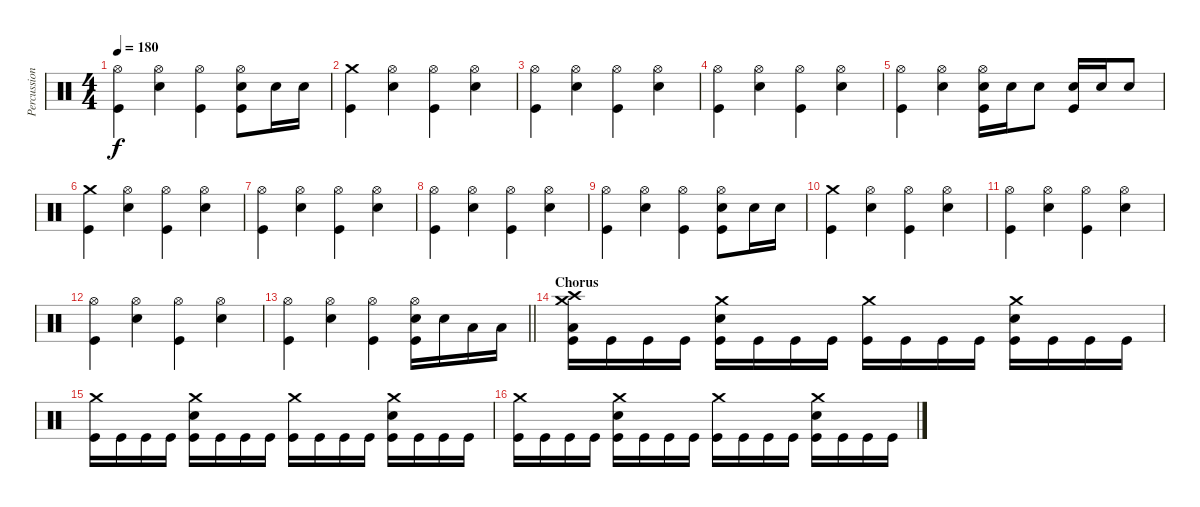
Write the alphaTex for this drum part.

\track ("Percussion" "Percussion") {instrument percussion}
\staff {score}
\articulation defaults
\ts (4 4)
\tempo 180
\clef neutral
\ks c
("Hi-Hat (open)" "Kick (hit)").4{dy f} ("Hi-Hat (open)" "Electric Snare (hit)").4 ("Hi-Hat (open)" "Kick (hit)").4 ("Hi-Hat (open)" "Electric Snare (hit)" "Kick (hit)").8 "Electric Snare (hit)".16 "Electric Snare (hit)".16 |
("Crash medium (hit)" "Kick (hit)").4 ("Hi-Hat (open)" "Electric Snare (hit)").4 ("Hi-Hat (open)" "Kick (hit)").4 ("Hi-Hat (open)" "Electric Snare (hit)").4 |
("Hi-Hat (open)" "Kick (hit)").4 ("Hi-Hat (open)" "Electric Snare (hit)").4 ("Hi-Hat (open)" "Kick (hit)").4 ("Hi-Hat (open)" "Electric Snare (hit)").4 |
("Hi-Hat (open)" "Kick (hit)").4 ("Hi-Hat (open)" "Electric Snare (hit)").4 ("Hi-Hat (open)" "Kick (hit)").4 ("Hi-Hat (open)" "Electric Snare (hit)").4 |
("Hi-Hat (open)" "Kick (hit)").4 ("Hi-Hat (open)" "Electric Snare (hit)").4 ("Hi-Hat (open)" "Electric Snare (hit)" "Kick (hit)").16 "Electric Snare (hit)".16 "Electric Snare (hit)".8 ("Electric Snare (hit)" "Kick (hit)").16 "Electric Snare (hit)".16 "Electric Snare (hit)".8 |
("Crash medium (hit)" "Kick (hit)").4 ("Hi-Hat (open)" "Electric Snare (hit)").4 ("Hi-Hat (open)" "Kick (hit)").4 ("Hi-Hat (open)" "Electric Snare (hit)").4 |
("Hi-Hat (open)" "Kick (hit)").4 ("Hi-Hat (open)" "Electric Snare (hit)").4 ("Hi-Hat (open)" "Kick (hit)").4 ("Hi-Hat (open)" "Electric Snare (hit)").4 |
("Hi-Hat (open)" "Kick (hit)").4 ("Hi-Hat (open)" "Electric Snare (hit)").4 ("Hi-Hat (open)" "Kick (hit)").4 ("Hi-Hat (open)" "Electric Snare (hit)").4 |
("Hi-Hat (open)" "Kick (hit)").4 ("Hi-Hat (open)" "Electric Snare (hit)").4 ("Hi-Hat (open)" "Kick (hit)").4 ("Hi-Hat (open)" "Electric Snare (hit)" "Kick (hit)").8 "Electric Snare (hit)".16 "Electric Snare (hit)".16 |
("Crash medium (hit)" "Kick (hit)").4 ("Hi-Hat (open)" "Electric Snare (hit)").4 ("Hi-Hat (open)" "Kick (hit)").4 ("Hi-Hat (open)" "Electric Snare (hit)").4 |
("Hi-Hat (open)" "Kick (hit)").4 ("Hi-Hat (open)" "Electric Snare (hit)").4 ("Hi-Hat (open)" "Kick (hit)").4 ("Hi-Hat (open)" "Electric Snare (hit)").4 |
("Hi-Hat (open)" "Kick (hit)").4 ("Hi-Hat (open)" "Electric Snare (hit)").4 ("Hi-Hat (open)" "Kick (hit)").4 ("Hi-Hat (open)" "Electric Snare (hit)").4 |
\barLineRight lightlight
("Hi-Hat (open)" "Kick (hit)").4 ("Hi-Hat (open)" "Electric Snare (hit)").4 ("Hi-Hat (open)" "Kick (hit)").4 ("Hi-Hat (open)" "Electric Snare (hit)" "Kick (hit)").16 "Electric Snare (hit)".16 "Low Floor Tom (hit)".16 "Low Floor Tom (hit)".16 |
\section ("" "Chorus")
("Crash medium (hit)" "Crash high (hit)" "Low Floor Tom (hit)" "Kick (hit)").16 "Kick (hit)".16 "Kick (hit)".16 "Kick (hit)".16 ("Crash medium (hit)" "Electric Snare (hit)" "Kick (hit)").16 "Kick (hit)".16 "Kick (hit)".16 "Kick (hit)".16 ("Crash medium (hit)" "Kick (hit)").16 "Kick (hit)".16 "Kick (hit)".16 "Kick (hit)".16 ("Crash medium (hit)" "Electric Snare (hit)" "Kick (hit)").16 "Kick (hit)".16 "Kick (hit)".16 "Kick (hit)".16 |
("Crash medium (hit)" "Kick (hit)").16 "Kick (hit)".16 "Kick (hit)".16 "Kick (hit)".16 ("Crash medium (hit)" "Electric Snare (hit)" "Kick (hit)").16 "Kick (hit)".16 "Kick (hit)".16 "Kick (hit)".16 ("Crash medium (hit)" "Kick (hit)").16 "Kick (hit)".16 "Kick (hit)".16 "Kick (hit)".16 ("Crash medium (hit)" "Electric Snare (hit)" "Kick (hit)").16 "Kick (hit)".16 "Kick (hit)".16 "Kick (hit)".16 |
("Crash medium (hit)" "Kick (hit)").16 "Kick (hit)".16 "Kick (hit)".16 "Kick (hit)".16 ("Crash medium (hit)" "Electric Snare (hit)" "Kick (hit)").16 "Kick (hit)".16 "Kick (hit)".16 "Kick (hit)".16 ("Crash medium (hit)" "Kick (hit)").16 "Kick (hit)".16 "Kick (hit)".16 "Kick (hit)".16 ("Crash medium (hit)" "Electric Snare (hit)" "Kick (hit)").16 "Kick (hit)".16 "Kick (hit)".16 "Kick (hit)".16
